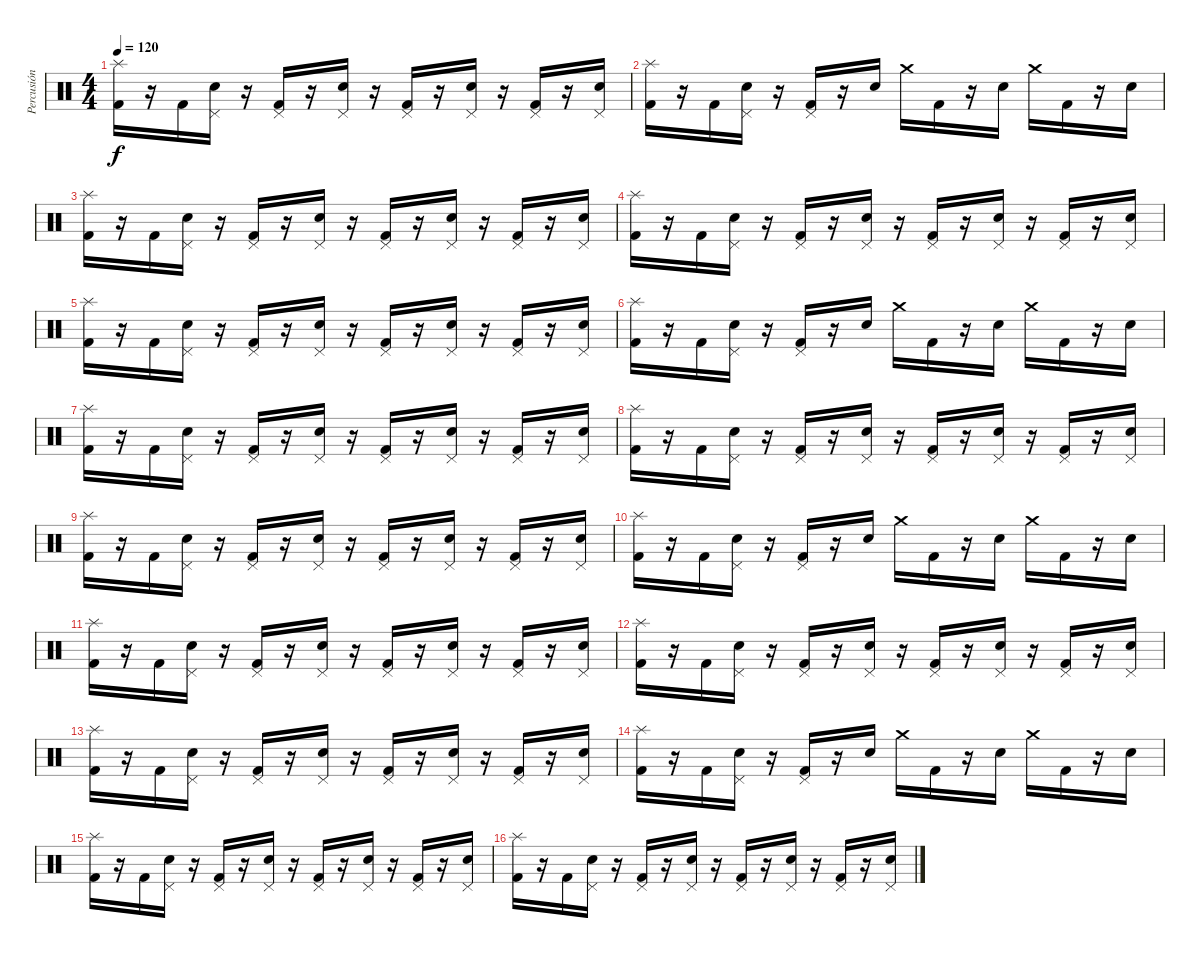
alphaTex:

\track ("Percusión" "Percusión") {instrument percussion}
\staff {score}
\articulation defaults
\ts (4 4)
\tempo 120
\clef neutral
\ks c
("Splash (hit)" "Kick (hit) 2").16{dy f} r.16 "Kick (hit) 2".16 ("Pedal Hi-Hat (hit)" "Snare (hit) 2").16 r.16 ("Pedal Hi-Hat (hit)" "Kick (hit) 2").16 r.16 ("Pedal Hi-Hat (hit)" "Snare (hit) 2").16 r.16 ("Pedal Hi-Hat (hit)" "Kick (hit) 2").16 r.16 ("Pedal Hi-Hat (hit)" "Snare (hit) 2").16 r.16 ("Pedal Hi-Hat (hit)" "Kick (hit) 2").16 r.16 ("Pedal Hi-Hat (hit)" "Snare (hit) 2").16 |
("Splash (hit)" "Kick (hit) 2").16 r.16 "Kick (hit) 2".16 ("Pedal Hi-Hat (hit)" "Snare (hit) 2").16 r.16 ("Pedal Hi-Hat (hit)" "Kick (hit) 2").16 r.16 "Snare (hit) 2".16 "Crash medium (hit)".16 "Kick (hit) 2".16 r.16 "Snare (hit) 2".16 "Crash medium (hit)".16 "Kick (hit) 2".16 r.16 "Snare (hit) 2".16 |
("Splash (hit)" "Kick (hit) 2").16 r.16 "Kick (hit) 2".16 ("Pedal Hi-Hat (hit)" "Snare (hit) 2").16 r.16 ("Pedal Hi-Hat (hit)" "Kick (hit) 2").16 r.16 ("Pedal Hi-Hat (hit)" "Snare (hit) 2").16 r.16 ("Pedal Hi-Hat (hit)" "Kick (hit) 2").16 r.16 ("Pedal Hi-Hat (hit)" "Snare (hit) 2").16 r.16 ("Pedal Hi-Hat (hit)" "Kick (hit) 2").16 r.16 ("Pedal Hi-Hat (hit)" "Snare (hit) 2").16 |
("Splash (hit)" "Kick (hit) 2").16 r.16 "Kick (hit) 2".16 ("Pedal Hi-Hat (hit)" "Snare (hit) 2").16 r.16 ("Pedal Hi-Hat (hit)" "Kick (hit) 2").16 r.16 ("Pedal Hi-Hat (hit)" "Snare (hit) 2").16 r.16 ("Pedal Hi-Hat (hit)" "Kick (hit) 2").16 r.16 ("Pedal Hi-Hat (hit)" "Snare (hit) 2").16 r.16 ("Pedal Hi-Hat (hit)" "Kick (hit) 2").16 r.16 ("Pedal Hi-Hat (hit)" "Snare (hit) 2").16 |
("Splash (hit)" "Kick (hit) 2").16 r.16 "Kick (hit) 2".16 ("Pedal Hi-Hat (hit)" "Snare (hit) 2").16 r.16 ("Pedal Hi-Hat (hit)" "Kick (hit) 2").16 r.16 ("Pedal Hi-Hat (hit)" "Snare (hit) 2").16 r.16 ("Pedal Hi-Hat (hit)" "Kick (hit) 2").16 r.16 ("Pedal Hi-Hat (hit)" "Snare (hit) 2").16 r.16 ("Pedal Hi-Hat (hit)" "Kick (hit) 2").16 r.16 ("Pedal Hi-Hat (hit)" "Snare (hit) 2").16 |
("Splash (hit)" "Kick (hit) 2").16 r.16 "Kick (hit) 2".16 ("Pedal Hi-Hat (hit)" "Snare (hit) 2").16 r.16 ("Pedal Hi-Hat (hit)" "Kick (hit) 2").16 r.16 "Snare (hit) 2".16 "Crash medium (hit)".16 "Kick (hit) 2".16 r.16 "Snare (hit) 2".16 "Crash medium (hit)".16 "Kick (hit) 2".16 r.16 "Snare (hit) 2".16 |
("Splash (hit)" "Kick (hit) 2").16 r.16 "Kick (hit) 2".16 ("Pedal Hi-Hat (hit)" "Snare (hit) 2").16 r.16 ("Pedal Hi-Hat (hit)" "Kick (hit) 2").16 r.16 ("Pedal Hi-Hat (hit)" "Snare (hit) 2").16 r.16 ("Pedal Hi-Hat (hit)" "Kick (hit) 2").16 r.16 ("Pedal Hi-Hat (hit)" "Snare (hit) 2").16 r.16 ("Pedal Hi-Hat (hit)" "Kick (hit) 2").16 r.16 ("Pedal Hi-Hat (hit)" "Snare (hit) 2").16 |
("Splash (hit)" "Kick (hit) 2").16 r.16 "Kick (hit) 2".16 ("Pedal Hi-Hat (hit)" "Snare (hit) 2").16 r.16 ("Pedal Hi-Hat (hit)" "Kick (hit) 2").16 r.16 ("Pedal Hi-Hat (hit)" "Snare (hit) 2").16 r.16 ("Pedal Hi-Hat (hit)" "Kick (hit) 2").16 r.16 ("Pedal Hi-Hat (hit)" "Snare (hit) 2").16 r.16 ("Pedal Hi-Hat (hit)" "Kick (hit) 2").16 r.16 ("Pedal Hi-Hat (hit)" "Snare (hit) 2").16 |
("Splash (hit)" "Kick (hit) 2").16 r.16 "Kick (hit) 2".16 ("Pedal Hi-Hat (hit)" "Snare (hit) 2").16 r.16 ("Pedal Hi-Hat (hit)" "Kick (hit) 2").16 r.16 ("Pedal Hi-Hat (hit)" "Snare (hit) 2").16 r.16 ("Pedal Hi-Hat (hit)" "Kick (hit) 2").16 r.16 ("Pedal Hi-Hat (hit)" "Snare (hit) 2").16 r.16 ("Pedal Hi-Hat (hit)" "Kick (hit) 2").16 r.16 ("Pedal Hi-Hat (hit)" "Snare (hit) 2").16 |
("Splash (hit)" "Kick (hit) 2").16 r.16 "Kick (hit) 2".16 ("Pedal Hi-Hat (hit)" "Snare (hit) 2").16 r.16 ("Pedal Hi-Hat (hit)" "Kick (hit) 2").16 r.16 "Snare (hit) 2".16 "Crash medium (hit)".16 "Kick (hit) 2".16 r.16 "Snare (hit) 2".16 "Crash medium (hit)".16 "Kick (hit) 2".16 r.16 "Snare (hit) 2".16 |
("Splash (hit)" "Kick (hit) 2").16 r.16 "Kick (hit) 2".16 ("Pedal Hi-Hat (hit)" "Snare (hit) 2").16 r.16 ("Pedal Hi-Hat (hit)" "Kick (hit) 2").16 r.16 ("Pedal Hi-Hat (hit)" "Snare (hit) 2").16 r.16 ("Pedal Hi-Hat (hit)" "Kick (hit) 2").16 r.16 ("Pedal Hi-Hat (hit)" "Snare (hit) 2").16 r.16 ("Pedal Hi-Hat (hit)" "Kick (hit) 2").16 r.16 ("Pedal Hi-Hat (hit)" "Snare (hit) 2").16 |
("Splash (hit)" "Kick (hit) 2").16 r.16 "Kick (hit) 2".16 ("Pedal Hi-Hat (hit)" "Snare (hit) 2").16 r.16 ("Pedal Hi-Hat (hit)" "Kick (hit) 2").16 r.16 ("Pedal Hi-Hat (hit)" "Snare (hit) 2").16 r.16 ("Pedal Hi-Hat (hit)" "Kick (hit) 2").16 r.16 ("Pedal Hi-Hat (hit)" "Snare (hit) 2").16 r.16 ("Pedal Hi-Hat (hit)" "Kick (hit) 2").16 r.16 ("Pedal Hi-Hat (hit)" "Snare (hit) 2").16 |
("Splash (hit)" "Kick (hit) 2").16 r.16 "Kick (hit) 2".16 ("Pedal Hi-Hat (hit)" "Snare (hit) 2").16 r.16 ("Pedal Hi-Hat (hit)" "Kick (hit) 2").16 r.16 ("Pedal Hi-Hat (hit)" "Snare (hit) 2").16 r.16 ("Pedal Hi-Hat (hit)" "Kick (hit) 2").16 r.16 ("Pedal Hi-Hat (hit)" "Snare (hit) 2").16 r.16 ("Pedal Hi-Hat (hit)" "Kick (hit) 2").16 r.16 ("Pedal Hi-Hat (hit)" "Snare (hit) 2").16 |
("Splash (hit)" "Kick (hit) 2").16 r.16 "Kick (hit) 2".16 ("Pedal Hi-Hat (hit)" "Snare (hit) 2").16 r.16 ("Pedal Hi-Hat (hit)" "Kick (hit) 2").16 r.16 "Snare (hit) 2".16 "Crash medium (hit)".16 "Kick (hit) 2".16 r.16 "Snare (hit) 2".16 "Crash medium (hit)".16 "Kick (hit) 2".16 r.16 "Snare (hit) 2".16 |
("Splash (hit)" "Kick (hit) 2").16 r.16 "Kick (hit) 2".16 ("Pedal Hi-Hat (hit)" "Snare (hit) 2").16 r.16 ("Pedal Hi-Hat (hit)" "Kick (hit) 2").16 r.16 ("Pedal Hi-Hat (hit)" "Snare (hit) 2").16 r.16 ("Pedal Hi-Hat (hit)" "Kick (hit) 2").16 r.16 ("Pedal Hi-Hat (hit)" "Snare (hit) 2").16 r.16 ("Pedal Hi-Hat (hit)" "Kick (hit) 2").16 r.16 ("Pedal Hi-Hat (hit)" "Snare (hit) 2").16 |
("Splash (hit)" "Kick (hit) 2").16 r.16 "Kick (hit) 2".16 ("Pedal Hi-Hat (hit)" "Snare (hit) 2").16 r.16 ("Pedal Hi-Hat (hit)" "Kick (hit) 2").16 r.16 ("Pedal Hi-Hat (hit)" "Snare (hit) 2").16 r.16 ("Pedal Hi-Hat (hit)" "Kick (hit) 2").16 r.16 ("Pedal Hi-Hat (hit)" "Snare (hit) 2").16 r.16 ("Pedal Hi-Hat (hit)" "Kick (hit) 2").16 r.16 ("Pedal Hi-Hat (hit)" "Snare (hit) 2").16
